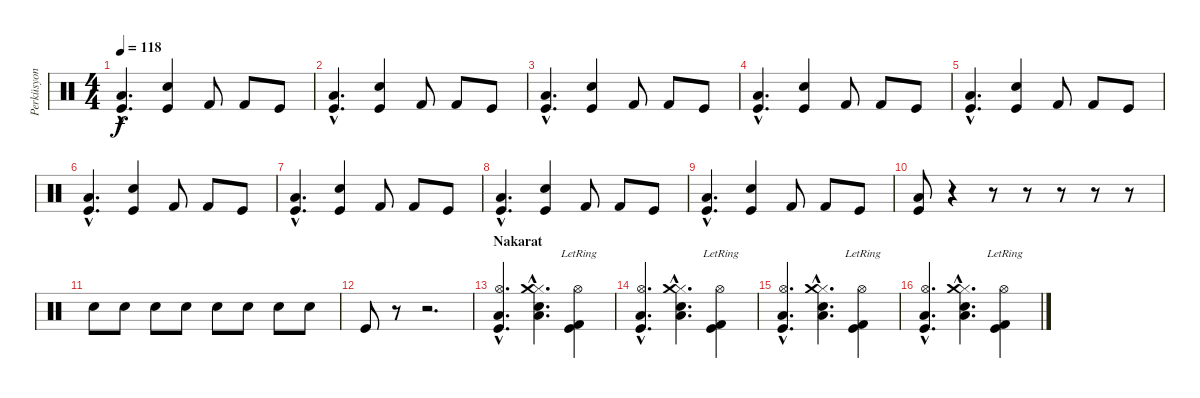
\track ("Perküsyon" "Perküsyon") {instrument percussion}
\staff {score}
\articulation defaults
\ts (4 4)
\tempo 118
\clef neutral
\ks c
("Low Floor Tom (hit)"{hac} "Kick (hit)"{hac}).4{d dy f} ("Electric Snare (hit)" "Kick (hit)").4 "Kick (hit) 2".8 "Kick (hit) 2".8 "Kick (hit)".8 |
("Low Floor Tom (hit)"{hac} "Kick (hit)"{hac}).4{d} ("Electric Snare (hit)" "Kick (hit)").4 "Kick (hit) 2".8 "Kick (hit) 2".8 "Kick (hit)".8 |
("Low Floor Tom (hit)"{hac} "Kick (hit)"{hac}).4{d} ("Electric Snare (hit)" "Kick (hit)").4 "Kick (hit) 2".8 "Kick (hit) 2".8 "Kick (hit)".8 |
("Low Floor Tom (hit)"{hac} "Kick (hit)"{hac}).4{d} ("Electric Snare (hit)" "Kick (hit)").4 "Kick (hit) 2".8 "Kick (hit) 2".8 "Kick (hit)".8 |
("Low Floor Tom (hit)"{hac} "Kick (hit)"{hac}).4{d} ("Electric Snare (hit)" "Kick (hit)").4 "Kick (hit) 2".8 "Kick (hit) 2".8 "Kick (hit)".8 |
("Low Floor Tom (hit)"{hac} "Kick (hit)"{hac}).4{d} ("Electric Snare (hit)" "Kick (hit)").4 "Kick (hit) 2".8 "Kick (hit) 2".8 "Kick (hit)".8 |
("Low Floor Tom (hit)"{hac} "Kick (hit)"{hac}).4{d} ("Electric Snare (hit)" "Kick (hit)").4 "Kick (hit) 2".8 "Kick (hit) 2".8 "Kick (hit)".8 |
("Low Floor Tom (hit)"{hac} "Kick (hit)"{hac}).4{d} ("Electric Snare (hit)" "Kick (hit)").4 "Kick (hit) 2".8 "Kick (hit) 2".8 "Kick (hit)".8 |
("Low Floor Tom (hit)"{hac} "Kick (hit)"{hac}).4{d} ("Electric Snare (hit)" "Kick (hit)").4 "Kick (hit) 2".8 "Kick (hit) 2".8 "Kick (hit)".8 |
("Low Floor Tom (hit)" "Kick (hit)").8 r.4 r.8 r.8 r.8 r.8 r.8 |
"Electric Snare (hit)".8 "Electric Snare (hit)".8 "Electric Snare (hit)".8 "Electric Snare (hit)".8 "Electric Snare (hit)".8 "Electric Snare (hit)".8 "Electric Snare (hit)".8 "Electric Snare (hit)".8 |
"Kick (hit)".8 r.8 r.2{d} |
\section ("" "Nakarat")
("Hi-Hat (open)"{hac} "Low Tom (hit)"{hac} "Kick (hit)"{hac}).4{d} ("Low Floor Tom (hit)"{hac} "Hi-Hat (closed)"{hac} "Snare (hit)"{hac} "Crash medium (hit)"{hac}).4{d} ("Hi-Hat (open)"{lr} "Kick (hit) 2" "Kick (hit)").4 |
("Hi-Hat (open)"{hac} "Low Tom (hit)"{hac} "Kick (hit)"{hac}).4{d} ("Low Floor Tom (hit)"{hac} "Hi-Hat (closed)"{hac} "Snare (hit)"{hac} "Crash medium (hit)"{hac}).4{d} ("Hi-Hat (open)"{lr} "Kick (hit) 2" "Kick (hit)").4 |
("Hi-Hat (open)"{hac} "Low Tom (hit)"{hac} "Kick (hit)"{hac}).4{d} ("Low Floor Tom (hit)"{hac} "Hi-Hat (closed)"{hac} "Snare (hit)"{hac} "Crash medium (hit)"{hac}).4{d} ("Hi-Hat (open)"{lr} "Kick (hit) 2" "Kick (hit)").4 |
("Hi-Hat (open)"{hac} "Low Tom (hit)"{hac} "Kick (hit)"{hac}).4{d} ("Low Floor Tom (hit)"{hac} "Hi-Hat (closed)"{hac} "Snare (hit)"{hac} "Crash medium (hit)"{hac}).4{d} ("Hi-Hat (open)"{lr} "Kick (hit) 2" "Kick (hit)").4
